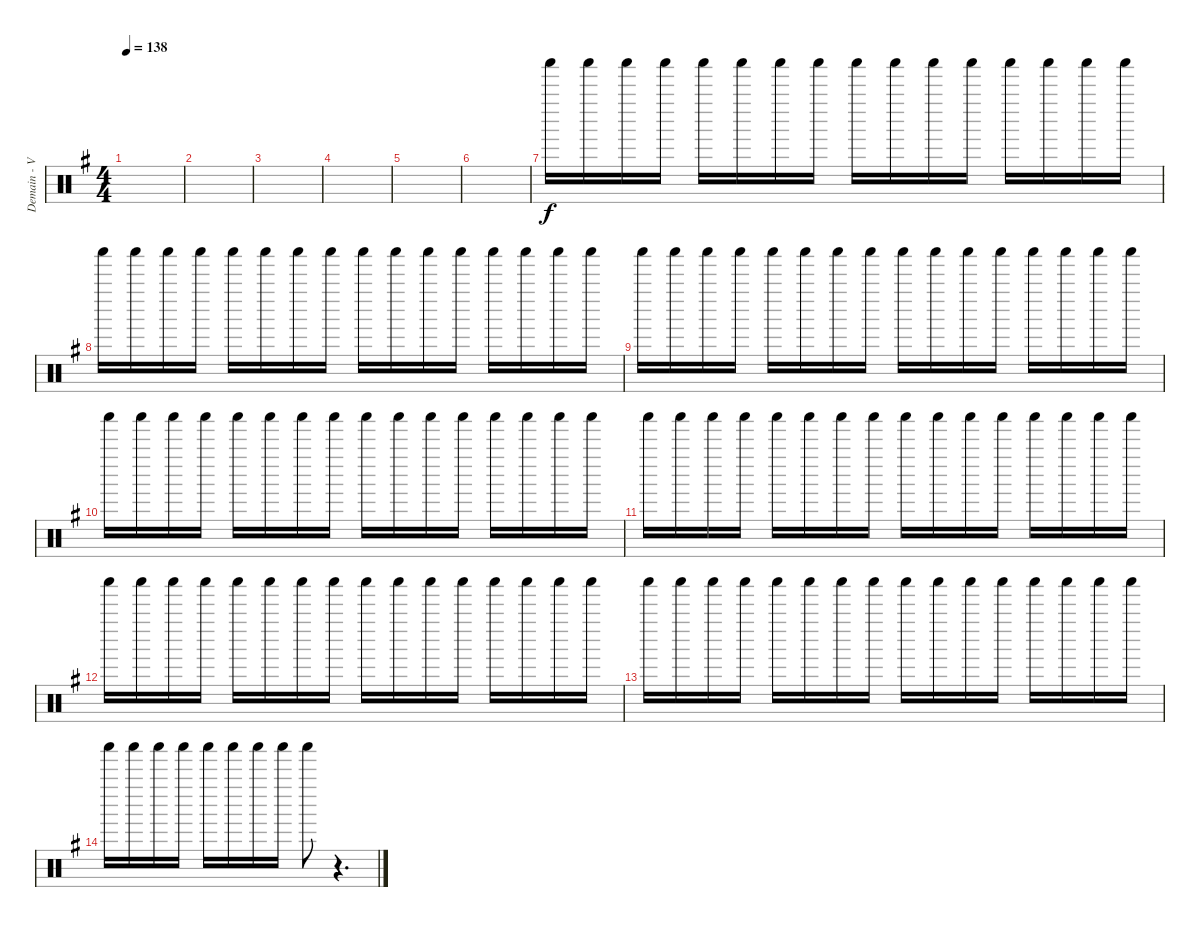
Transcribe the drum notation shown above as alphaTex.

\track ("Demain - Various Perc." "Demain - V") {instrument percussion}
\staff {score}
\articulation defaults
\ts (4 4)
\tempo 138
\clef neutral
\ks g
|
|
|
|
|
|
"Shaker (hit)".16 "Shaker (hit)".16 "Shaker (hit)".16 "Shaker (hit)".16 "Shaker (hit)".16 "Shaker (hit)".16 "Shaker (hit)".16 "Shaker (hit)".16 "Shaker (hit)".16 "Shaker (hit)".16 "Shaker (hit)".16 "Shaker (hit)".16 "Shaker (hit)".16 "Shaker (hit)".16 "Shaker (hit)".16 "Shaker (hit)".16 |
"Shaker (hit)".16 "Shaker (hit)".16 "Shaker (hit)".16 "Shaker (hit)".16 "Shaker (hit)".16 "Shaker (hit)".16 "Shaker (hit)".16 "Shaker (hit)".16 "Shaker (hit)".16 "Shaker (hit)".16 "Shaker (hit)".16 "Shaker (hit)".16 "Shaker (hit)".16 "Shaker (hit)".16 "Shaker (hit)".16 "Shaker (hit)".16 |
"Shaker (hit)".16 "Shaker (hit)".16 "Shaker (hit)".16 "Shaker (hit)".16 "Shaker (hit)".16 "Shaker (hit)".16 "Shaker (hit)".16 "Shaker (hit)".16 "Shaker (hit)".16 "Shaker (hit)".16 "Shaker (hit)".16 "Shaker (hit)".16 "Shaker (hit)".16 "Shaker (hit)".16 "Shaker (hit)".16 "Shaker (hit)".16 |
"Shaker (hit)".16 "Shaker (hit)".16 "Shaker (hit)".16 "Shaker (hit)".16 "Shaker (hit)".16 "Shaker (hit)".16 "Shaker (hit)".16 "Shaker (hit)".16 "Shaker (hit)".16 "Shaker (hit)".16 "Shaker (hit)".16 "Shaker (hit)".16 "Shaker (hit)".16 "Shaker (hit)".16 "Shaker (hit)".16 "Shaker (hit)".16 |
"Shaker (hit)".16 "Shaker (hit)".16 "Shaker (hit)".16 "Shaker (hit)".16 "Shaker (hit)".16 "Shaker (hit)".16 "Shaker (hit)".16 "Shaker (hit)".16 "Shaker (hit)".16 "Shaker (hit)".16 "Shaker (hit)".16 "Shaker (hit)".16 "Shaker (hit)".16 "Shaker (hit)".16 "Shaker (hit)".16 "Shaker (hit)".16 |
"Shaker (hit)".16 "Shaker (hit)".16 "Shaker (hit)".16 "Shaker (hit)".16 "Shaker (hit)".16 "Shaker (hit)".16 "Shaker (hit)".16 "Shaker (hit)".16 "Shaker (hit)".16 "Shaker (hit)".16 "Shaker (hit)".16 "Shaker (hit)".16 "Shaker (hit)".16 "Shaker (hit)".16 "Shaker (hit)".16 "Shaker (hit)".16 |
"Shaker (hit)".16 "Shaker (hit)".16 "Shaker (hit)".16 "Shaker (hit)".16 "Shaker (hit)".16 "Shaker (hit)".16 "Shaker (hit)".16 "Shaker (hit)".16 "Shaker (hit)".16 "Shaker (hit)".16 "Shaker (hit)".16 "Shaker (hit)".16 "Shaker (hit)".16 "Shaker (hit)".16 "Shaker (hit)".16 "Shaker (hit)".16 |
"Shaker (hit)".16 "Shaker (hit)".16 "Shaker (hit)".16 "Shaker (hit)".16 "Shaker (hit)".16 "Shaker (hit)".16 "Shaker (hit)".16 "Shaker (hit)".16 "Shaker (hit)".8 r.4{d}
